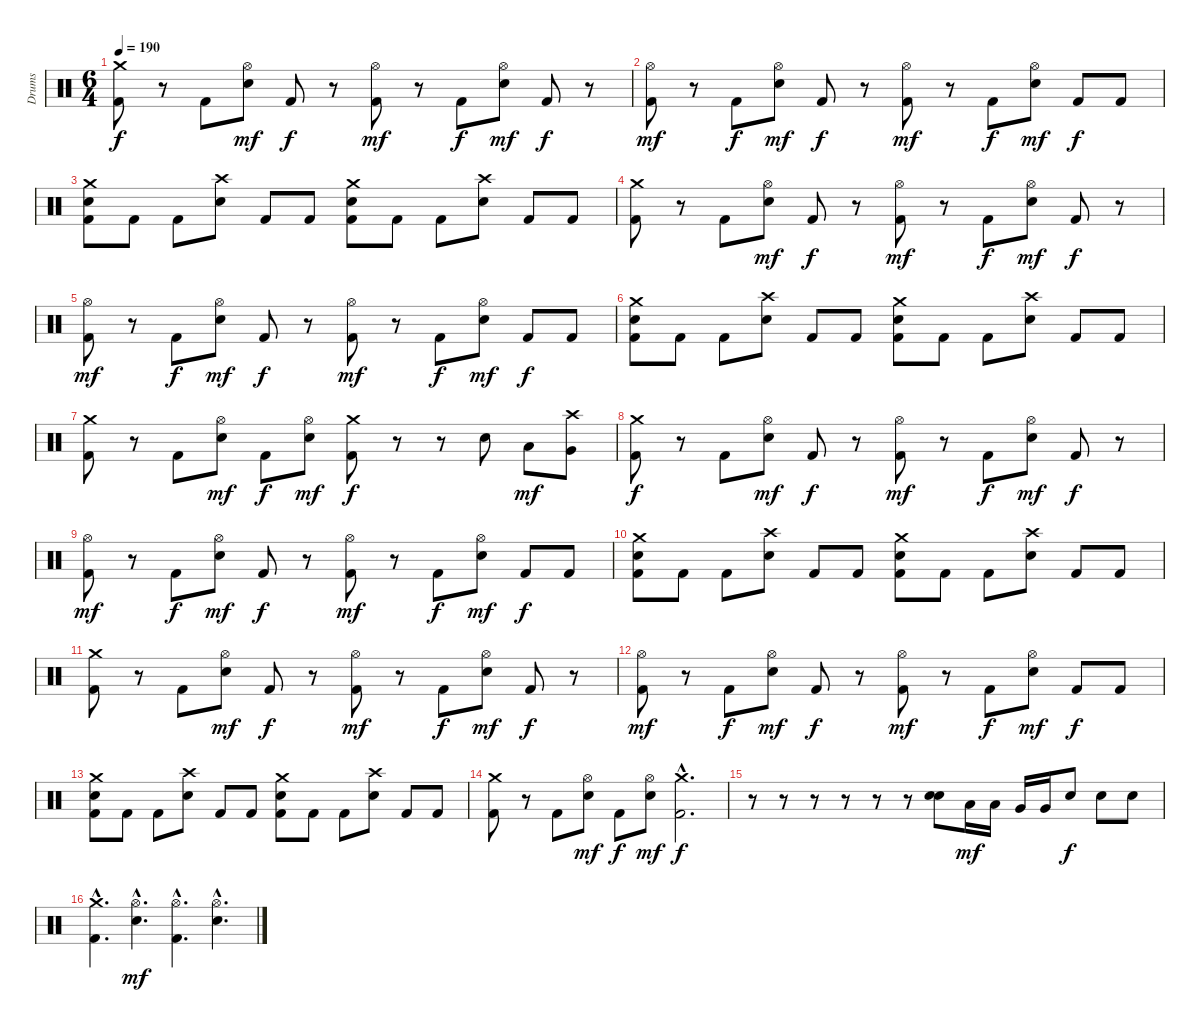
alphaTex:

\track ("Drums" "Drums") {instrument percussion}
\staff {score}
\articulation defaults
\ts (6 4)
\tempo 190
\clef neutral
\ks c
("Crash medium (hit)" "Kick (hit) 2").8{dy f} r.8 "Kick (hit) 2".8 ("Hi-Hat (open)" "Snare (hit) 2").8{dy mf} "Kick (hit) 2".8{dy f} r.8 ("Hi-Hat (open)" "Kick (hit) 2").8{dy mf} r.8 "Kick (hit) 2".8{dy f} ("Hi-Hat (open)" "Snare (hit) 2").8{dy mf} "Kick (hit) 2".8{dy f} r.8 |
("Hi-Hat (open)" "Kick (hit) 2").8{dy mf} r.8 "Kick (hit) 2".8{dy f} ("Hi-Hat (open)" "Snare (hit) 2").8{dy mf} "Kick (hit) 2".8{dy f} r.8 ("Hi-Hat (open)" "Kick (hit) 2").8{dy mf} r.8 "Kick (hit) 2".8{dy f} ("Hi-Hat (open)" "Snare (hit) 2").8{dy mf} "Kick (hit) 2".8{dy f} "Kick (hit) 2".8 |
("Crash medium (hit)" "Snare (hit) 2" "Kick (hit) 2").8 "Kick (hit) 2".8 "Kick (hit) 2".8 ("Crash high (hit)" "Snare (hit) 2").8 "Kick (hit) 2".8 "Kick (hit) 2".8 ("Crash medium (hit)" "Snare (hit) 2" "Kick (hit) 2").8 "Kick (hit) 2".8 "Kick (hit) 2".8 ("Crash high (hit)" "Snare (hit) 2").8 "Kick (hit) 2".8 "Kick (hit) 2".8 |
("Crash medium (hit)" "Kick (hit) 2").8 r.8 "Kick (hit) 2".8 ("Hi-Hat (open)" "Snare (hit) 2").8{dy mf} "Kick (hit) 2".8{dy f} r.8 ("Hi-Hat (open)" "Kick (hit) 2").8{dy mf} r.8 "Kick (hit) 2".8{dy f} ("Hi-Hat (open)" "Snare (hit) 2").8{dy mf} "Kick (hit) 2".8{dy f} r.8 |
("Hi-Hat (open)" "Kick (hit) 2").8{dy mf} r.8 "Kick (hit) 2".8{dy f} ("Hi-Hat (open)" "Snare (hit) 2").8{dy mf} "Kick (hit) 2".8{dy f} r.8 ("Hi-Hat (open)" "Kick (hit) 2").8{dy mf} r.8 "Kick (hit) 2".8{dy f} ("Hi-Hat (open)" "Snare (hit) 2").8{dy mf} "Kick (hit) 2".8{dy f} "Kick (hit) 2".8 |
("Crash medium (hit)" "Snare (hit) 2" "Kick (hit) 2").8 "Kick (hit) 2".8 "Kick (hit) 2".8 ("Crash high (hit)" "Snare (hit) 2").8 "Kick (hit) 2".8 "Kick (hit) 2".8 ("Crash medium (hit)" "Snare (hit) 2" "Kick (hit) 2").8 "Kick (hit) 2".8 "Kick (hit) 2".8 ("Crash high (hit)" "Snare (hit) 2").8 "Kick (hit) 2".8 "Kick (hit) 2".8 |
("Crash medium (hit)" "Kick (hit) 2").8 r.8 "Kick (hit) 2".8 ("Hi-Hat (open)" "Snare (hit) 2").8{dy mf} "Kick (hit) 2".8{dy f} ("Hi-Hat (open)" "Snare (hit) 2").8{dy mf} ("Crash medium (hit)" "Kick (hit) 2").8{dy f} r.8 r.8 "Snare (hit) 2".8 "Low Tom (hit)".8{dy mf} ("Crash high (hit)" "Very Low Tom (hit)").8 |
("Crash medium (hit)" "Kick (hit) 2").8{dy f} r.8 "Kick (hit) 2".8 ("Hi-Hat (open)" "Snare (hit) 2").8{dy mf} "Kick (hit) 2".8{dy f} r.8 ("Hi-Hat (open)" "Kick (hit) 2").8{dy mf} r.8 "Kick (hit) 2".8{dy f} ("Hi-Hat (open)" "Snare (hit) 2").8{dy mf} "Kick (hit) 2".8{dy f} r.8 |
("Hi-Hat (open)" "Kick (hit) 2").8{dy mf} r.8 "Kick (hit) 2".8{dy f} ("Hi-Hat (open)" "Snare (hit) 2").8{dy mf} "Kick (hit) 2".8{dy f} r.8 ("Hi-Hat (open)" "Kick (hit) 2").8{dy mf} r.8 "Kick (hit) 2".8{dy f} ("Hi-Hat (open)" "Snare (hit) 2").8{dy mf} "Kick (hit) 2".8{dy f} "Kick (hit) 2".8 |
("Crash medium (hit)" "Snare (hit) 2" "Kick (hit) 2").8 "Kick (hit) 2".8 "Kick (hit) 2".8 ("Crash high (hit)" "Snare (hit) 2").8 "Kick (hit) 2".8 "Kick (hit) 2".8 ("Crash medium (hit)" "Snare (hit) 2" "Kick (hit) 2").8 "Kick (hit) 2".8 "Kick (hit) 2".8 ("Crash high (hit)" "Snare (hit) 2").8 "Kick (hit) 2".8 "Kick (hit) 2".8 |
("Crash medium (hit)" "Kick (hit) 2").8 r.8 "Kick (hit) 2".8 ("Hi-Hat (open)" "Snare (hit) 2").8{dy mf} "Kick (hit) 2".8{dy f} r.8 ("Hi-Hat (open)" "Kick (hit) 2").8{dy mf} r.8 "Kick (hit) 2".8{dy f} ("Hi-Hat (open)" "Snare (hit) 2").8{dy mf} "Kick (hit) 2".8{dy f} r.8 |
("Hi-Hat (open)" "Kick (hit) 2").8{dy mf} r.8 "Kick (hit) 2".8{dy f} ("Hi-Hat (open)" "Snare (hit) 2").8{dy mf} "Kick (hit) 2".8{dy f} r.8 ("Hi-Hat (open)" "Kick (hit) 2").8{dy mf} r.8 "Kick (hit) 2".8{dy f} ("Hi-Hat (open)" "Snare (hit) 2").8{dy mf} "Kick (hit) 2".8{dy f} "Kick (hit) 2".8 |
("Crash medium (hit)" "Snare (hit) 2" "Kick (hit) 2").8 "Kick (hit) 2".8 "Kick (hit) 2".8 ("Crash high (hit)" "Snare (hit) 2").8 "Kick (hit) 2".8 "Kick (hit) 2".8 ("Crash medium (hit)" "Snare (hit) 2" "Kick (hit) 2").8 "Kick (hit) 2".8 "Kick (hit) 2".8 ("Crash high (hit)" "Snare (hit) 2").8 "Kick (hit) 2".8 "Kick (hit) 2".8 |
("Crash medium (hit)" "Kick (hit) 2").8 r.8 "Kick (hit) 2".8 ("Hi-Hat (open)" "Snare (hit) 2").8{dy mf} "Kick (hit) 2".8{dy f} ("Hi-Hat (open)" "Snare (hit) 2").8{dy mf} ("Crash medium (hit)"{hac} "Kick (hit) 2"{hac}).2{d dy f} |
r.8 r.8 r.8 r.8 r.8 r.8 ("Snare (hit) 2" "Snare (hit) 2").8{bu 480} "Low Tom (hit)".16{dy mf} "Low Tom (hit)".16 "Very Low Tom (hit)".16 "Very Low Tom (hit)".16 "Snare (hit) 2".8{dy f} "Snare (hit) 2".8 "Snare (hit) 2".8 |
("Crash medium (hit)"{hac} "Kick (hit) 2"{hac}).4{d} ("Hi-Hat (open)"{hac} "Snare (hit) 2"{hac}).4{d dy mf} ("Hi-Hat (open)"{hac} "Kick (hit) 2"{hac}).4{d} ("Hi-Hat (open)"{hac} "Snare (hit) 2"{hac}).4{d}
